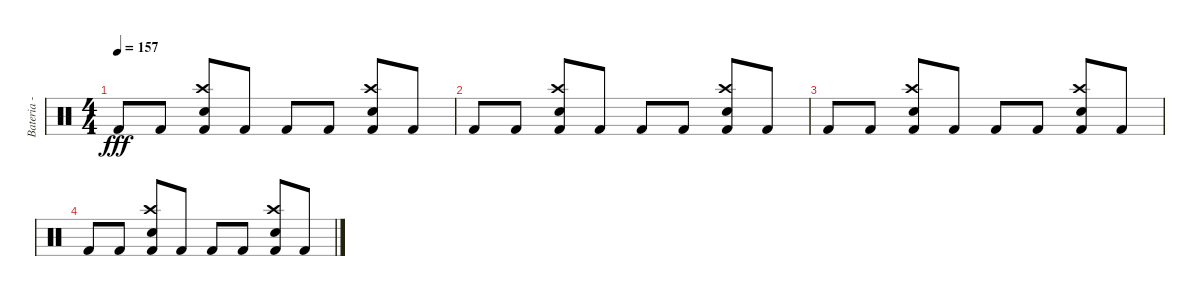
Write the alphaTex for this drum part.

\track ("Bateria - Larzon" "Bateria - ") {instrument percussion}
\staff {score}
\articulation defaults
\ts (4 4)
\tempo 157
\clef neutral
\ks c "Kick (hit) 2".8{dy fff} "Kick (hit) 2".8
("Kick (hit) 2" "Crash high (hit)" "Snare (hit) 2").8 "Kick (hit) 2".8 "Kick (hit) 2".8 "Kick (hit) 2".8 ("Kick (hit) 2" "Crash high (hit)" "Snare (hit) 2").8 "Kick (hit) 2".8 |
"Kick (hit) 2".8 "Kick (hit) 2".8 ("Kick (hit) 2" "Crash high (hit)" "Snare (hit) 2").8 "Kick (hit) 2".8 "Kick (hit) 2".8 "Kick (hit) 2".8 ("Kick (hit) 2" "Crash high (hit)" "Snare (hit) 2").8 "Kick (hit) 2".8 |
"Kick (hit) 2".8 "Kick (hit) 2".8 ("Kick (hit) 2" "Crash high (hit)" "Snare (hit) 2").8 "Kick (hit) 2".8 "Kick (hit) 2".8 "Kick (hit) 2".8 ("Kick (hit) 2" "Crash high (hit)" "Snare (hit) 2").8 "Kick (hit) 2".8 |
"Kick (hit) 2".8 "Kick (hit) 2".8 ("Kick (hit) 2" "Crash high (hit)" "Snare (hit) 2").8 "Kick (hit) 2".8 "Kick (hit) 2".8 "Kick (hit) 2".8 ("Kick (hit) 2" "Crash high (hit)" "Snare (hit) 2").8 "Kick (hit) 2".8
